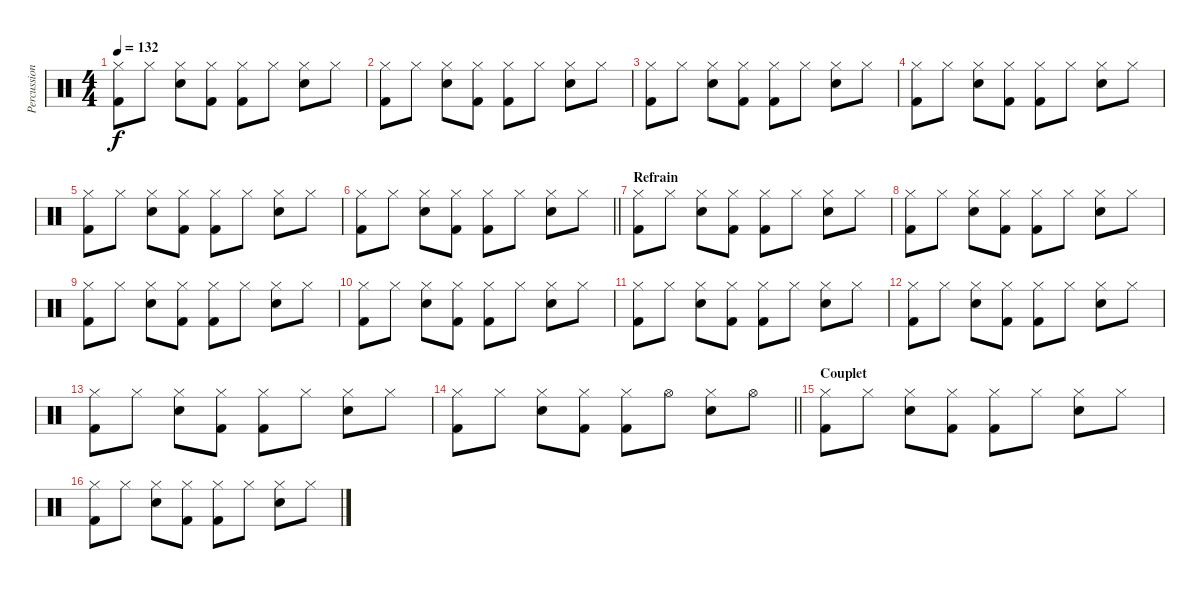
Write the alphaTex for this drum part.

\track ("Percussions" "Percussion") {instrument percussion}
\staff {score}
\articulation defaults
\ts (4 4)
\tempo 132
\clef neutral
\ks c
("Hi-Hat (closed)" "Kick (hit) 2").8{dy f} "Hi-Hat (closed)".8 ("Hi-Hat (closed)" "Snare (hit) 2").8 ("Hi-Hat (closed)" "Kick (hit) 2").8 ("Hi-Hat (closed)" "Kick (hit) 2").8 "Hi-Hat (closed)".8 ("Hi-Hat (closed)" "Snare (hit) 2").8 "Hi-Hat (closed)".8 |
("Hi-Hat (closed)" "Kick (hit) 2").8 "Hi-Hat (closed)".8 ("Hi-Hat (closed)" "Snare (hit) 2").8 ("Hi-Hat (closed)" "Kick (hit) 2").8 ("Hi-Hat (closed)" "Kick (hit) 2").8 "Hi-Hat (closed)".8 ("Hi-Hat (closed)" "Snare (hit) 2").8 "Hi-Hat (closed)".8 |
("Hi-Hat (closed)" "Kick (hit) 2").8 "Hi-Hat (closed)".8 ("Hi-Hat (closed)" "Snare (hit) 2").8 ("Hi-Hat (closed)" "Kick (hit) 2").8 ("Hi-Hat (closed)" "Kick (hit) 2").8 "Hi-Hat (closed)".8 ("Hi-Hat (closed)" "Snare (hit) 2").8 "Hi-Hat (closed)".8 |
("Hi-Hat (closed)" "Kick (hit) 2").8 "Hi-Hat (closed)".8 ("Hi-Hat (closed)" "Snare (hit) 2").8 ("Hi-Hat (closed)" "Kick (hit) 2").8 ("Hi-Hat (closed)" "Kick (hit) 2").8 "Hi-Hat (closed)".8 ("Hi-Hat (closed)" "Snare (hit) 2").8 "Hi-Hat (closed)".8 |
("Hi-Hat (closed)" "Kick (hit) 2").8 "Hi-Hat (closed)".8 ("Hi-Hat (closed)" "Snare (hit) 2").8 ("Hi-Hat (closed)" "Kick (hit) 2").8 ("Hi-Hat (closed)" "Kick (hit) 2").8 "Hi-Hat (closed)".8 ("Hi-Hat (closed)" "Snare (hit) 2").8 "Hi-Hat (closed)".8 |
\barLineRight lightlight
("Hi-Hat (closed)" "Kick (hit) 2").8 "Hi-Hat (closed)".8 ("Hi-Hat (closed)" "Snare (hit) 2").8 ("Hi-Hat (closed)" "Kick (hit) 2").8 ("Hi-Hat (closed)" "Kick (hit) 2").8 "Hi-Hat (closed)".8 ("Hi-Hat (closed)" "Snare (hit) 2").8 "Hi-Hat (closed)".8 |
\section ("" "Refrain")
("Hi-Hat (closed)" "Kick (hit) 2").8 "Hi-Hat (closed)".8 ("Hi-Hat (closed)" "Snare (hit) 2").8 ("Hi-Hat (closed)" "Kick (hit) 2").8 ("Hi-Hat (closed)" "Kick (hit) 2").8 "Hi-Hat (closed)".8 ("Hi-Hat (closed)" "Snare (hit) 2").8 "Hi-Hat (closed)".8 |
("Hi-Hat (closed)" "Kick (hit) 2").8 "Hi-Hat (closed)".8 ("Hi-Hat (closed)" "Snare (hit) 2").8 ("Hi-Hat (closed)" "Kick (hit) 2").8 ("Hi-Hat (closed)" "Kick (hit) 2").8 "Hi-Hat (closed)".8 ("Hi-Hat (closed)" "Snare (hit) 2").8 "Hi-Hat (closed)".8 |
("Hi-Hat (closed)" "Kick (hit) 2").8 "Hi-Hat (closed)".8 ("Hi-Hat (closed)" "Snare (hit) 2").8 ("Hi-Hat (closed)" "Kick (hit) 2").8 ("Hi-Hat (closed)" "Kick (hit) 2").8 "Hi-Hat (closed)".8 ("Hi-Hat (closed)" "Snare (hit) 2").8 "Hi-Hat (closed)".8 |
("Hi-Hat (closed)" "Kick (hit) 2").8 "Hi-Hat (closed)".8 ("Hi-Hat (closed)" "Snare (hit) 2").8 ("Hi-Hat (closed)" "Kick (hit) 2").8 ("Hi-Hat (closed)" "Kick (hit) 2").8 "Hi-Hat (closed)".8 ("Hi-Hat (closed)" "Snare (hit) 2").8 "Hi-Hat (closed)".8 |
("Hi-Hat (closed)" "Kick (hit) 2").8 "Hi-Hat (closed)".8 ("Hi-Hat (closed)" "Snare (hit) 2").8 ("Hi-Hat (closed)" "Kick (hit) 2").8 ("Hi-Hat (closed)" "Kick (hit) 2").8 "Hi-Hat (closed)".8 ("Hi-Hat (closed)" "Snare (hit) 2").8 "Hi-Hat (closed)".8 |
("Hi-Hat (closed)" "Kick (hit) 2").8 "Hi-Hat (closed)".8 ("Hi-Hat (closed)" "Snare (hit) 2").8 ("Hi-Hat (closed)" "Kick (hit) 2").8 ("Hi-Hat (closed)" "Kick (hit) 2").8 "Hi-Hat (closed)".8 ("Hi-Hat (closed)" "Snare (hit) 2").8 "Hi-Hat (closed)".8 |
("Hi-Hat (closed)" "Kick (hit) 2").8 "Hi-Hat (closed)".8 ("Hi-Hat (closed)" "Snare (hit) 2").8 ("Hi-Hat (closed)" "Kick (hit) 2").8 ("Hi-Hat (closed)" "Kick (hit) 2").8 "Hi-Hat (closed)".8 ("Hi-Hat (closed)" "Snare (hit) 2").8 "Hi-Hat (closed)".8 |
\barLineRight lightlight
("Hi-Hat (closed)" "Kick (hit) 2").8 "Hi-Hat (closed)".8 ("Hi-Hat (closed)" "Snare (hit) 2").8 ("Hi-Hat (closed)" "Kick (hit) 2").8 ("Hi-Hat (closed)" "Kick (hit) 2").8 "Hi-Hat (open)".8 ("Hi-Hat (closed)" "Snare (hit) 2").8 "Hi-Hat (open)".8 |
\section ("" "Couplet")
("Hi-Hat (closed)" "Kick (hit) 2").8 "Hi-Hat (closed)".8 ("Hi-Hat (closed)" "Snare (hit) 2").8 ("Hi-Hat (closed)" "Kick (hit) 2").8 ("Hi-Hat (closed)" "Kick (hit) 2").8 "Hi-Hat (closed)".8 ("Hi-Hat (closed)" "Snare (hit) 2").8 "Hi-Hat (closed)".8 |
("Hi-Hat (closed)" "Kick (hit) 2").8 "Hi-Hat (closed)".8 ("Hi-Hat (closed)" "Snare (hit) 2").8 ("Hi-Hat (closed)" "Kick (hit) 2").8 ("Hi-Hat (closed)" "Kick (hit) 2").8 "Hi-Hat (closed)".8 ("Hi-Hat (closed)" "Snare (hit) 2").8 "Hi-Hat (closed)".8
